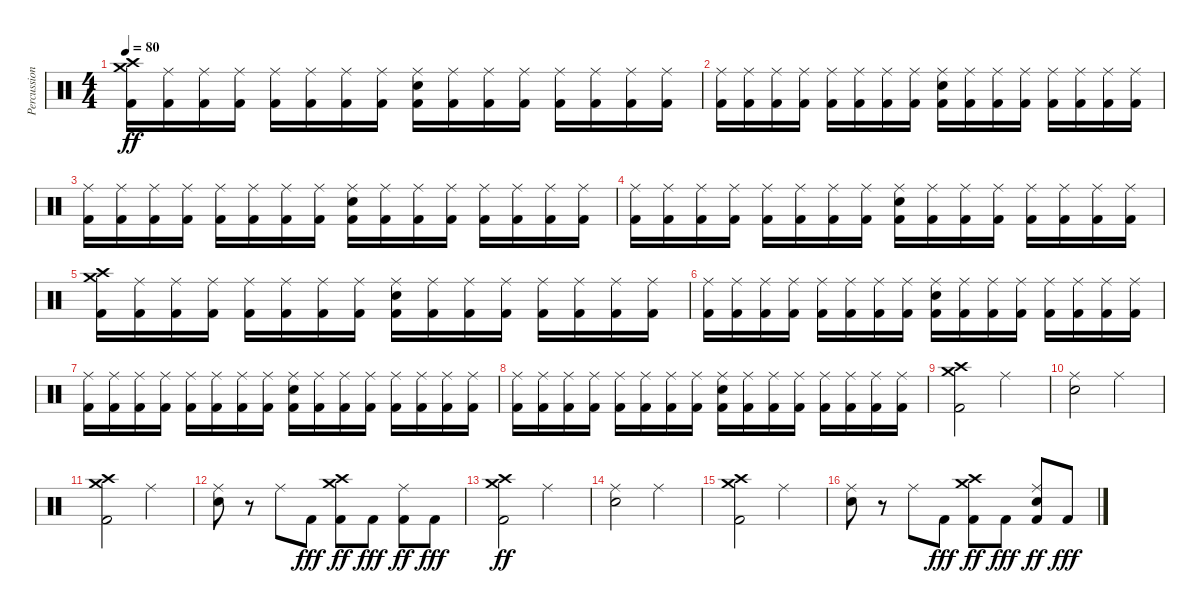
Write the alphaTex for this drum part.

\track ("Percussion" "Percussion") {instrument percussion}
\staff {score}
\articulation defaults
\ts (4 4)
\tempo 80
\clef neutral
\ks c
("Kick (hit) 2" "Crash medium (hit)" "Crash high (hit)").16{dy ff} ("Kick (hit) 2" "Ride (middle)").16 ("Kick (hit) 2" "Ride (middle)").16 ("Kick (hit) 2" "Ride (middle)").16 ("Kick (hit) 2" "Ride (middle)").16 ("Kick (hit) 2" "Ride (middle)").16 ("Kick (hit) 2" "Ride (middle)").16 ("Kick (hit) 2" "Ride (middle)").16 ("Kick (hit) 2" "Electric Snare (hit)" "Ride (middle)").16 ("Kick (hit) 2" "Ride (middle)").16 ("Kick (hit) 2" "Ride (middle)").16 ("Kick (hit) 2" "Ride (middle)").16 ("Kick (hit) 2" "Ride (middle)").16 ("Kick (hit) 2" "Ride (middle)").16 ("Kick (hit) 2" "Ride (middle)").16 ("Kick (hit) 2" "Ride (middle)").16 |
("Kick (hit) 2" "Ride (middle)").16 ("Kick (hit) 2" "Ride (middle)").16 ("Kick (hit) 2" "Ride (middle)").16 ("Kick (hit) 2" "Ride (middle)").16 ("Kick (hit) 2" "Ride (middle)").16 ("Kick (hit) 2" "Ride (middle)").16 ("Kick (hit) 2" "Ride (middle)").16 ("Kick (hit) 2" "Ride (middle)").16 ("Kick (hit) 2" "Electric Snare (hit)" "Ride (middle)").16 ("Kick (hit) 2" "Ride (middle)").16 ("Kick (hit) 2" "Ride (middle)").16 ("Kick (hit) 2" "Ride (middle)").16 ("Kick (hit) 2" "Ride (middle)").16 ("Kick (hit) 2" "Ride (middle)").16 ("Kick (hit) 2" "Ride (middle)").16 ("Kick (hit) 2" "Ride (middle)").16 |
("Kick (hit) 2" "Ride (middle)").16 ("Kick (hit) 2" "Ride (middle)").16 ("Kick (hit) 2" "Ride (middle)").16 ("Kick (hit) 2" "Ride (middle)").16 ("Kick (hit) 2" "Ride (middle)").16 ("Kick (hit) 2" "Ride (middle)").16 ("Kick (hit) 2" "Ride (middle)").16 ("Kick (hit) 2" "Ride (middle)").16 ("Kick (hit) 2" "Electric Snare (hit)" "Ride (middle)").16 ("Kick (hit) 2" "Ride (middle)").16 ("Kick (hit) 2" "Ride (middle)").16 ("Kick (hit) 2" "Ride (middle)").16 ("Kick (hit) 2" "Ride (middle)").16 ("Kick (hit) 2" "Ride (middle)").16 ("Kick (hit) 2" "Ride (middle)").16 ("Kick (hit) 2" "Ride (middle)").16 |
("Kick (hit) 2" "Ride (middle)").16 ("Kick (hit) 2" "Ride (middle)").16 ("Kick (hit) 2" "Ride (middle)").16 ("Kick (hit) 2" "Ride (middle)").16 ("Kick (hit) 2" "Ride (middle)").16 ("Kick (hit) 2" "Ride (middle)").16 ("Kick (hit) 2" "Ride (middle)").16 ("Kick (hit) 2" "Ride (middle)").16 ("Kick (hit) 2" "Electric Snare (hit)" "Ride (middle)").16 ("Kick (hit) 2" "Ride (middle)").16 ("Kick (hit) 2" "Ride (middle)").16 ("Kick (hit) 2" "Ride (middle)").16 ("Kick (hit) 2" "Ride (middle)").16 ("Kick (hit) 2" "Ride (middle)").16 ("Kick (hit) 2" "Ride (middle)").16 ("Kick (hit) 2" "Ride (middle)").16 |
("Kick (hit) 2" "Crash medium (hit)" "Crash high (hit)").16 ("Kick (hit) 2" "Ride (middle)").16 ("Kick (hit) 2" "Ride (middle)").16 ("Kick (hit) 2" "Ride (middle)").16 ("Kick (hit) 2" "Ride (middle)").16 ("Kick (hit) 2" "Ride (middle)").16 ("Kick (hit) 2" "Ride (middle)").16 ("Kick (hit) 2" "Ride (middle)").16 ("Kick (hit) 2" "Electric Snare (hit)" "Ride (middle)").16 ("Kick (hit) 2" "Ride (middle)").16 ("Kick (hit) 2" "Ride (middle)").16 ("Kick (hit) 2" "Ride (middle)").16 ("Kick (hit) 2" "Ride (middle)").16 ("Kick (hit) 2" "Ride (middle)").16 ("Kick (hit) 2" "Ride (middle)").16 ("Kick (hit) 2" "Ride (middle)").16 |
("Kick (hit) 2" "Ride (middle)").16 ("Kick (hit) 2" "Ride (middle)").16 ("Kick (hit) 2" "Ride (middle)").16 ("Kick (hit) 2" "Ride (middle)").16 ("Kick (hit) 2" "Ride (middle)").16 ("Kick (hit) 2" "Ride (middle)").16 ("Kick (hit) 2" "Ride (middle)").16 ("Kick (hit) 2" "Ride (middle)").16 ("Kick (hit) 2" "Electric Snare (hit)" "Ride (middle)").16 ("Kick (hit) 2" "Ride (middle)").16 ("Kick (hit) 2" "Ride (middle)").16 ("Kick (hit) 2" "Ride (middle)").16 ("Kick (hit) 2" "Ride (middle)").16 ("Kick (hit) 2" "Ride (middle)").16 ("Kick (hit) 2" "Ride (middle)").16 ("Kick (hit) 2" "Ride (middle)").16 |
("Kick (hit) 2" "Ride (middle)").16 ("Kick (hit) 2" "Ride (middle)").16 ("Kick (hit) 2" "Ride (middle)").16 ("Kick (hit) 2" "Ride (middle)").16 ("Kick (hit) 2" "Ride (middle)").16 ("Kick (hit) 2" "Ride (middle)").16 ("Kick (hit) 2" "Ride (middle)").16 ("Kick (hit) 2" "Ride (middle)").16 ("Kick (hit) 2" "Electric Snare (hit)" "Ride (middle)").16 ("Kick (hit) 2" "Ride (middle)").16 ("Kick (hit) 2" "Ride (middle)").16 ("Kick (hit) 2" "Ride (middle)").16 ("Kick (hit) 2" "Ride (middle)").16 ("Kick (hit) 2" "Ride (middle)").16 ("Kick (hit) 2" "Ride (middle)").16 ("Kick (hit) 2" "Ride (middle)").16 |
("Kick (hit) 2" "Ride (middle)").16 ("Kick (hit) 2" "Ride (middle)").16 ("Kick (hit) 2" "Ride (middle)").16 ("Kick (hit) 2" "Ride (middle)").16 ("Kick (hit) 2" "Ride (middle)").16 ("Kick (hit) 2" "Ride (middle)").16 ("Kick (hit) 2" "Ride (middle)").16 ("Kick (hit) 2" "Ride (middle)").16 ("Kick (hit) 2" "Electric Snare (hit)" "Ride (middle)").16 ("Kick (hit) 2" "Ride (middle)").16 ("Kick (hit) 2" "Ride (middle)").16 ("Kick (hit) 2" "Ride (middle)").16 ("Kick (hit) 2" "Ride (middle)").16 ("Kick (hit) 2" "Ride (middle)").16 ("Kick (hit) 2" "Ride (middle)").16 ("Kick (hit) 2" "Ride (middle)").16 |
("Kick (hit) 2" "Crash medium (hit)" "Crash high (hit)").2 "Ride (middle)".2 |
("Electric Snare (hit)" "Ride (middle)").2 "Ride (middle)".2 |
("Kick (hit) 2" "Crash medium (hit)" "Crash high (hit)").2 "Ride (middle)".2 |
("Electric Snare (hit)" "Ride (middle)").8 r.8 "Ride (middle)".8 "Kick (hit) 2".8{dy fff} ("Kick (hit) 2" "Crash medium (hit)" "Crash high (hit)").8{dy ff} "Kick (hit) 2".8{dy fff} ("Kick (hit) 2" "Ride (middle)").8{dy ff} "Kick (hit) 2".8{dy fff} |
("Kick (hit) 2" "Crash medium (hit)" "Crash high (hit)").2{dy ff} "Ride (middle)".2 |
("Electric Snare (hit)" "Ride (middle)").2 "Ride (middle)".2 |
("Kick (hit) 2" "Crash medium (hit)" "Crash high (hit)").2 "Ride (middle)".2 |
("Electric Snare (hit)" "Ride (middle)").8 r.8 "Ride (middle)".8 "Kick (hit) 2".8{dy fff} ("Kick (hit) 2" "Crash medium (hit)" "Crash high (hit)").8{dy ff} "Kick (hit) 2".8{dy fff} ("Kick (hit) 2" "Electric Snare (hit)" "Ride (middle)").8{dy ff} "Kick (hit) 2".8{dy fff}
